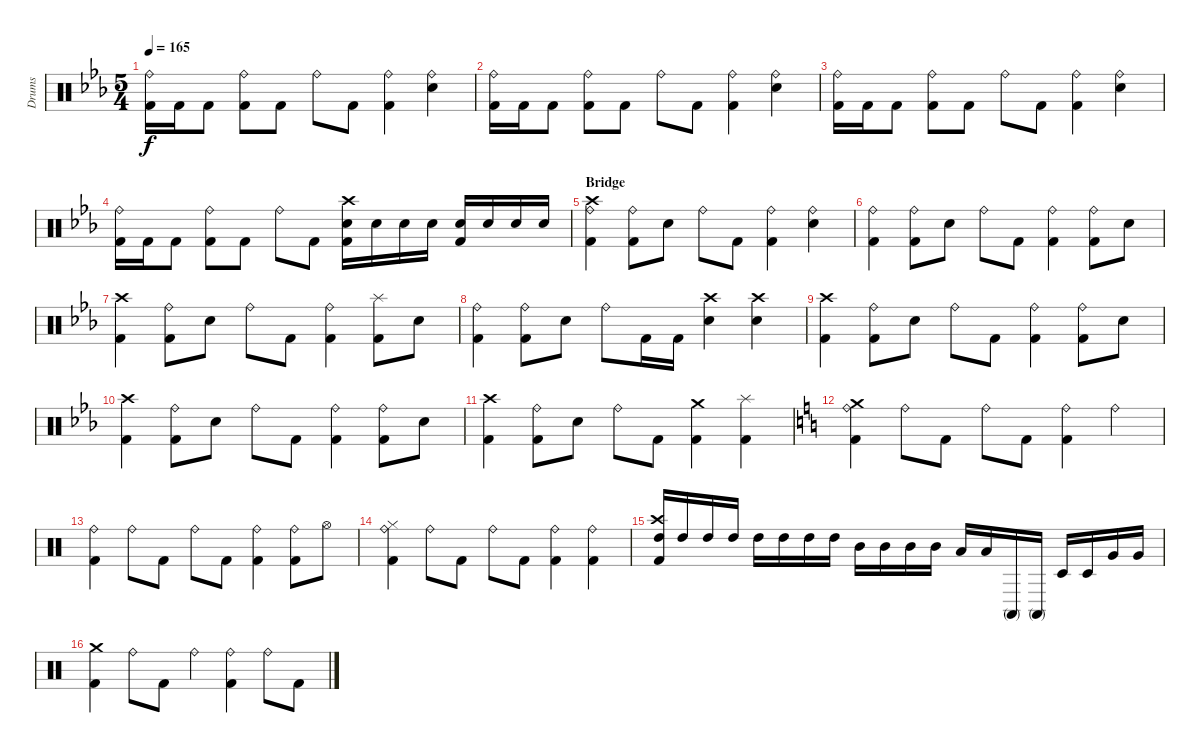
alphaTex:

\track ("Drums" "Drums") {instrument percussion}
\staff {score}
\articulation defaults
\ts (5 4)
\tempo 165
\clef neutral
\ks eb
("Kick (hit) 2" "Ride (bell)").16{dy f} "Kick (hit) 2".16 "Kick (hit) 2".8 ("Kick (hit) 2" "Ride (bell)").8 "Kick (hit) 2".8 "Ride (bell)".8 "Kick (hit) 2".8 ("Kick (hit) 2" "Ride (bell)").4 ("Electric Snare (hit)" "Ride (bell)").4 |
("Kick (hit) 2" "Ride (bell)").16 "Kick (hit) 2".16 "Kick (hit) 2".8 ("Kick (hit) 2" "Ride (bell)").8 "Kick (hit) 2".8 "Ride (bell)".8 "Kick (hit) 2".8 ("Kick (hit) 2" "Ride (bell)").4 ("Electric Snare (hit)" "Ride (bell)").4 |
("Kick (hit) 2" "Ride (bell)").16 "Kick (hit) 2".16 "Kick (hit) 2".8 ("Kick (hit) 2" "Ride (bell)").8 "Kick (hit) 2".8 "Ride (bell)".8 "Kick (hit) 2".8 ("Kick (hit) 2" "Ride (bell)").4 ("Electric Snare (hit)" "Ride (bell)").4 |
("Kick (hit) 2" "Ride (bell)").16 "Kick (hit) 2".16 "Kick (hit) 2".8 ("Kick (hit) 2" "Ride (bell)").8 "Kick (hit) 2".8 "Ride (bell)".8 "Kick (hit) 2".8 ("Kick (hit) 2" "Electric Snare (hit)" "Crash high (hit)").16 "Electric Snare (hit)".16 "Electric Snare (hit)".16 "Electric Snare (hit)".16 ("Kick (hit) 2" "Electric Snare (hit)").16 "Electric Snare (hit)".16 "Electric Snare (hit)".16 "Electric Snare (hit)".16 |
\section ("" "Bridge")
("Crash high (hit)" "Kick (hit) 2" "Ride (bell)").4 ("Kick (hit) 2" "Ride (bell)").8 "Electric Snare (hit)".8 "Ride (bell)".8 "Kick (hit) 2".8 ("Kick (hit) 2" "Ride (bell)").4 ("Electric Snare (hit)" "Ride (bell)").4 |
("Ride (bell)" "Kick (hit) 2").4 ("Kick (hit) 2" "Ride (bell)").8 "Electric Snare (hit)".8 "Ride (bell)".8 "Kick (hit) 2".8 ("Kick (hit) 2" "Ride (bell)").4 ("Kick (hit) 2" "Ride (bell)").8 "Electric Snare (hit)".8 |
("Crash high (hit)" "Kick (hit) 2").4 ("Kick (hit) 2" "Ride (bell)").8 "Electric Snare (hit)".8 "Ride (bell)".8 "Kick (hit) 2".8 ("Kick (hit) 2" "Ride (bell)").4 ("Kick (hit) 2" "Splash (hit)").8 "Electric Snare (hit)".8 |
("Ride (bell)" "Kick (hit) 2").4 ("Kick (hit) 2" "Ride (bell)").8 "Electric Snare (hit)".8 "Ride (bell)".8 "Kick (hit) 2".16 "Kick (hit) 2".16 ("Electric Snare (hit)" "Crash high (hit)").4 ("Electric Snare (hit)" "Crash high (hit)").4 |
("Crash high (hit)" "Kick (hit) 2").4 ("Kick (hit) 2" "Ride (bell)").8 "Electric Snare (hit)".8 "Ride (bell)".8 "Kick (hit) 2".8 ("Kick (hit) 2" "Ride (bell)").4 ("Kick (hit) 2" "Ride (bell)").8 "Electric Snare (hit)".8 |
("Crash high (hit)" "Kick (hit) 2").4 ("Kick (hit) 2" "Ride (bell)").8 "Electric Snare (hit)".8 "Ride (bell)".8 "Kick (hit) 2".8 ("Kick (hit) 2" "Ride (bell)").4 ("Kick (hit) 2" "Ride (bell)").8 "Electric Snare (hit)".8 |
("Crash high (hit)" "Kick (hit) 2").4 ("Kick (hit) 2" "Ride (bell)").8 "Electric Snare (hit)".8 "Ride (bell)".8 "Kick (hit) 2".8 ("Kick (hit) 2" "Crash medium (hit)").4 ("Kick (hit) 2" "Splash (hit)").4 |
\ks c
("Ride (bell)" "Kick (hit) 2" "Crash medium (hit)").4 "Ride (bell)".8 "Kick (hit) 2".8 "Ride (bell)".8 "Kick (hit) 2".8 ("Ride (bell)" "Kick (hit) 2").4 "Ride (bell)".4 |
("Ride (bell)" "Kick (hit) 2").4 "Ride (bell)".8 "Kick (hit) 2".8 "Ride (bell)".8 "Kick (hit) 2".8 ("Ride (bell)" "Kick (hit) 2").4 ("Ride (bell)" "Kick (hit) 2").8 "Hi-Hat (open)".8 |
("Ride (bell)" "Kick (hit) 2" "Hi-Hat (closed)").4 "Ride (bell)".8 "Kick (hit) 2".8 "Ride (bell)".8 "Kick (hit) 2".8 ("Ride (bell)" "Kick (hit) 2").4 ("Ride (bell)" "Kick (hit) 2").4 |
("High Tom (hit)" "Crash high (hit)" "Kick (hit) 2").16 "High Tom (hit)".16 "High Tom (hit)".16 "High Tom (hit)".16 "High Tom (hit)".16 "High Tom (hit)".16 "High Tom (hit)".16 "High Tom (hit)".16 "Mid Tom (hit)".16 "Mid Tom (hit)".16 "Mid Tom (hit)".16 "Mid Tom (hit)".16 "Low Tom (hit)".16 "Low Tom (hit)".16 "Conga high (mute)".16 "Conga high (mute)".16 "Timbale low (hit)".16 "Timbale low (hit)".16 "Very Low Tom (hit)".16 "Very Low Tom (hit)".16 |
("Kick (hit) 2" "Crash medium (hit)").4 "Ride (bell)".8 "Kick (hit) 2".8 "Ride (bell)".4 ("Kick (hit) 2" "Ride (bell)").4 "Ride (bell)".8 "Kick (hit) 2".8
